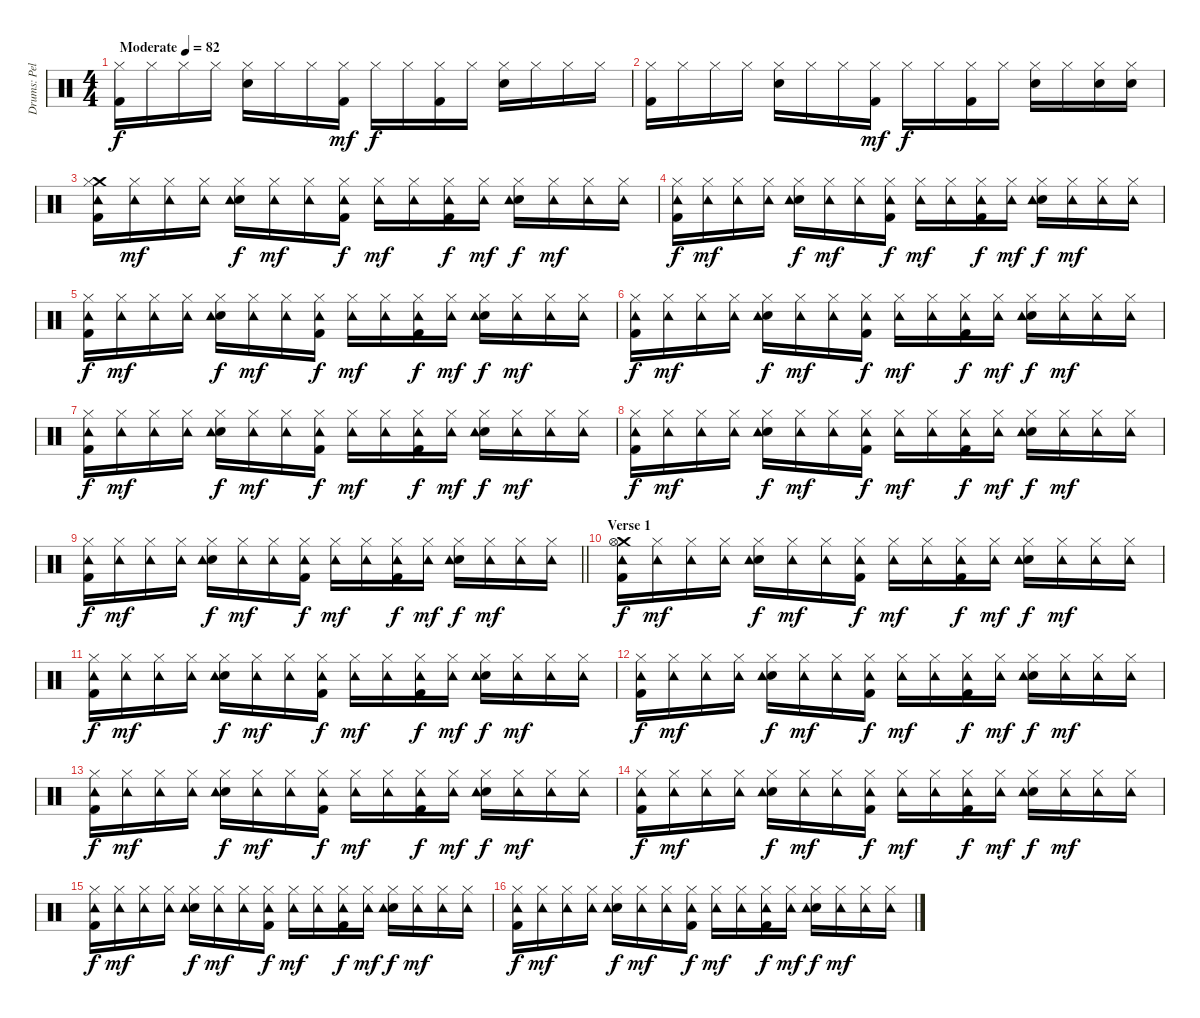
\track ("Drums: Pelle Alsing" "Drums: Pel") {instrument percussion}
\staff {score}
\articulation defaults
\ts (4 4)
\tempo (82 "Moderate")
\clef neutral
\ks c
("Hi-Hat (closed)" "Kick (hit) 2").16{dy f} "Hi-Hat (closed)".16 "Hi-Hat (closed)".16 "Hi-Hat (closed)".16 ("Hi-Hat (closed)" "Snare (hit) 2").16 "Hi-Hat (closed)".16 "Hi-Hat (closed)".16 ("Hi-Hat (closed)" "Kick (hit) 2").16{dy mf} "Hi-Hat (closed)".16{dy f} "Hi-Hat (closed)".16 ("Hi-Hat (closed)" "Kick (hit) 2").16 "Hi-Hat (closed)".16 ("Hi-Hat (closed)" "Snare (hit) 2").16 "Hi-Hat (closed)".16 "Hi-Hat (closed)".16 "Hi-Hat (closed)".16 |
("Hi-Hat (closed)" "Kick (hit) 2").16 "Hi-Hat (closed)".16 "Hi-Hat (closed)".16 "Hi-Hat (closed)".16 ("Hi-Hat (closed)" "Snare (hit) 2").16 "Hi-Hat (closed)".16 "Hi-Hat (closed)".16 ("Hi-Hat (closed)" "Kick (hit) 2").16{dy mf} "Hi-Hat (closed)".16{dy f} "Hi-Hat (closed)".16 ("Hi-Hat (closed)" "Kick (hit) 2").16 "Hi-Hat (closed)".16 ("Hi-Hat (closed)" "Snare (hit) 2").16 "Hi-Hat (closed)".16 ("Hi-Hat (closed)" "Snare (hit) 2").16 ("Hi-Hat (closed)" "Snare (hit) 2").16 |
("Crash medium (hit)" "Hi-Hat (closed)" "Tambourine (hit)" "Kick (hit) 2").16 ("Hi-Hat (closed)" "Tambourine (hit)").16{dy mf} ("Hi-Hat (closed)" "Tambourine (hit)").16 ("Hi-Hat (closed)" "Tambourine (hit)").16 ("Hi-Hat (closed)" "Snare (hit) 2" "Tambourine (hit)").16{dy f} ("Hi-Hat (closed)" "Tambourine (hit)").16{dy mf} ("Hi-Hat (closed)" "Tambourine (hit)").16 ("Hi-Hat (closed)" "Tambourine (hit)" "Kick (hit) 2").16{dy f} ("Hi-Hat (closed)" "Tambourine (hit)").16{dy mf} ("Hi-Hat (closed)" "Tambourine (hit)").16 ("Hi-Hat (closed)" "Tambourine (hit)" "Kick (hit) 2").16{dy f} ("Hi-Hat (closed)" "Tambourine (hit)").16{dy mf} ("Hi-Hat (closed)" "Snare (hit) 2" "Tambourine (hit)").16{dy f} ("Hi-Hat (closed)" "Tambourine (hit)").16{dy mf} ("Hi-Hat (closed)" "Tambourine (hit)").16 ("Hi-Hat (closed)" "Tambourine (hit)").16 |
("Hi-Hat (closed)" "Tambourine (hit)" "Kick (hit) 2").16{dy f} ("Hi-Hat (closed)" "Tambourine (hit)").16{dy mf} ("Hi-Hat (closed)" "Tambourine (hit)").16 ("Hi-Hat (closed)" "Tambourine (hit)").16 ("Hi-Hat (closed)" "Snare (hit) 2" "Tambourine (hit)").16{dy f} ("Hi-Hat (closed)" "Tambourine (hit)").16{dy mf} ("Hi-Hat (closed)" "Tambourine (hit)").16 ("Hi-Hat (closed)" "Tambourine (hit)" "Kick (hit) 2").16{dy f} ("Hi-Hat (closed)" "Tambourine (hit)").16{dy mf} ("Hi-Hat (closed)" "Tambourine (hit)").16 ("Hi-Hat (closed)" "Tambourine (hit)" "Kick (hit) 2").16{dy f} ("Hi-Hat (closed)" "Tambourine (hit)").16{dy mf} ("Hi-Hat (closed)" "Snare (hit) 2" "Tambourine (hit)").16{dy f} ("Hi-Hat (closed)" "Tambourine (hit)").16{dy mf} ("Hi-Hat (closed)" "Tambourine (hit)").16 ("Hi-Hat (closed)" "Tambourine (hit)").16 |
("Hi-Hat (closed)" "Tambourine (hit)" "Kick (hit) 2").16{dy f} ("Hi-Hat (closed)" "Tambourine (hit)").16{dy mf} ("Hi-Hat (closed)" "Tambourine (hit)").16 ("Hi-Hat (closed)" "Tambourine (hit)").16 ("Hi-Hat (closed)" "Snare (hit) 2" "Tambourine (hit)").16{dy f} ("Hi-Hat (closed)" "Tambourine (hit)").16{dy mf} ("Hi-Hat (closed)" "Tambourine (hit)").16 ("Hi-Hat (closed)" "Tambourine (hit)" "Kick (hit) 2").16{dy f} ("Hi-Hat (closed)" "Tambourine (hit)").16{dy mf} ("Hi-Hat (closed)" "Tambourine (hit)").16 ("Hi-Hat (closed)" "Tambourine (hit)" "Kick (hit) 2").16{dy f} ("Hi-Hat (closed)" "Tambourine (hit)").16{dy mf} ("Hi-Hat (closed)" "Snare (hit) 2" "Tambourine (hit)").16{dy f} ("Hi-Hat (closed)" "Tambourine (hit)").16{dy mf} ("Hi-Hat (closed)" "Tambourine (hit)").16 ("Hi-Hat (closed)" "Tambourine (hit)").16 |
("Hi-Hat (closed)" "Tambourine (hit)" "Kick (hit) 2").16{dy f} ("Hi-Hat (closed)" "Tambourine (hit)").16{dy mf} ("Hi-Hat (closed)" "Tambourine (hit)").16 ("Hi-Hat (closed)" "Tambourine (hit)").16 ("Hi-Hat (closed)" "Snare (hit) 2" "Tambourine (hit)").16{dy f} ("Hi-Hat (closed)" "Tambourine (hit)").16{dy mf} ("Hi-Hat (closed)" "Tambourine (hit)").16 ("Hi-Hat (closed)" "Tambourine (hit)" "Kick (hit) 2").16{dy f} ("Hi-Hat (closed)" "Tambourine (hit)").16{dy mf} ("Hi-Hat (closed)" "Tambourine (hit)").16 ("Hi-Hat (closed)" "Tambourine (hit)" "Kick (hit) 2").16{dy f} ("Hi-Hat (closed)" "Tambourine (hit)").16{dy mf} ("Hi-Hat (closed)" "Snare (hit) 2" "Tambourine (hit)").16{dy f} ("Hi-Hat (closed)" "Tambourine (hit)").16{dy mf} ("Hi-Hat (closed)" "Tambourine (hit)").16 ("Hi-Hat (closed)" "Tambourine (hit)").16 |
("Hi-Hat (closed)" "Tambourine (hit)" "Kick (hit) 2").16{dy f} ("Hi-Hat (closed)" "Tambourine (hit)").16{dy mf} ("Hi-Hat (closed)" "Tambourine (hit)").16 ("Hi-Hat (closed)" "Tambourine (hit)").16 ("Hi-Hat (closed)" "Snare (hit) 2" "Tambourine (hit)").16{dy f} ("Hi-Hat (closed)" "Tambourine (hit)").16{dy mf} ("Hi-Hat (closed)" "Tambourine (hit)").16 ("Hi-Hat (closed)" "Tambourine (hit)" "Kick (hit) 2").16{dy f} ("Hi-Hat (closed)" "Tambourine (hit)").16{dy mf} ("Hi-Hat (closed)" "Tambourine (hit)").16 ("Hi-Hat (closed)" "Tambourine (hit)" "Kick (hit) 2").16{dy f} ("Hi-Hat (closed)" "Tambourine (hit)").16{dy mf} ("Hi-Hat (closed)" "Snare (hit) 2" "Tambourine (hit)").16{dy f} ("Hi-Hat (closed)" "Tambourine (hit)").16{dy mf} ("Hi-Hat (closed)" "Tambourine (hit)").16 ("Hi-Hat (closed)" "Tambourine (hit)").16 |
("Hi-Hat (closed)" "Tambourine (hit)" "Kick (hit) 2").16{dy f} ("Hi-Hat (closed)" "Tambourine (hit)").16{dy mf} ("Hi-Hat (closed)" "Tambourine (hit)").16 ("Hi-Hat (closed)" "Tambourine (hit)").16 ("Hi-Hat (closed)" "Snare (hit) 2" "Tambourine (hit)").16{dy f} ("Hi-Hat (closed)" "Tambourine (hit)").16{dy mf} ("Hi-Hat (closed)" "Tambourine (hit)").16 ("Hi-Hat (closed)" "Tambourine (hit)" "Kick (hit) 2").16{dy f} ("Hi-Hat (closed)" "Tambourine (hit)").16{dy mf} ("Hi-Hat (closed)" "Tambourine (hit)").16 ("Hi-Hat (closed)" "Tambourine (hit)" "Kick (hit) 2").16{dy f} ("Hi-Hat (closed)" "Tambourine (hit)").16{dy mf} ("Hi-Hat (closed)" "Snare (hit) 2" "Tambourine (hit)").16{dy f} ("Hi-Hat (closed)" "Tambourine (hit)").16{dy mf} ("Hi-Hat (closed)" "Tambourine (hit)").16 ("Hi-Hat (closed)" "Tambourine (hit)").16 |
\barLineRight lightlight
("Hi-Hat (closed)" "Tambourine (hit)" "Kick (hit) 2").16{dy f} ("Hi-Hat (closed)" "Tambourine (hit)").16{dy mf} ("Hi-Hat (closed)" "Tambourine (hit)").16 ("Hi-Hat (closed)" "Tambourine (hit)").16 ("Hi-Hat (closed)" "Snare (hit) 2" "Tambourine (hit)").16{dy f} ("Hi-Hat (closed)" "Tambourine (hit)").16{dy mf} ("Hi-Hat (closed)" "Tambourine (hit)").16 ("Hi-Hat (closed)" "Tambourine (hit)" "Kick (hit) 2").16{dy f} ("Hi-Hat (closed)" "Tambourine (hit)").16{dy mf} ("Hi-Hat (closed)" "Tambourine (hit)").16 ("Hi-Hat (closed)" "Tambourine (hit)" "Kick (hit) 2").16{dy f} ("Hi-Hat (closed)" "Tambourine (hit)").16{dy mf} ("Hi-Hat (closed)" "Snare (hit) 2" "Tambourine (hit)").16{dy f} ("Hi-Hat (closed)" "Tambourine (hit)").16{dy mf} ("Hi-Hat (closed)" "Tambourine (hit)").16 ("Hi-Hat (closed)" "Tambourine (hit)").16 |
\section ("" "Verse 1")
("Crash medium (hit)" "Hi-Hat (open)" "Tambourine (hit)" "Kick (hit) 2").16{dy f} ("Hi-Hat (closed)" "Tambourine (hit)").16{dy mf} ("Hi-Hat (closed)" "Tambourine (hit)").16 ("Hi-Hat (closed)" "Tambourine (hit)").16 ("Hi-Hat (closed)" "Snare (hit) 2" "Tambourine (hit)").16{dy f} ("Hi-Hat (closed)" "Tambourine (hit)").16{dy mf} ("Hi-Hat (closed)" "Tambourine (hit)").16 ("Hi-Hat (closed)" "Tambourine (hit)" "Kick (hit) 2").16{dy f} ("Hi-Hat (closed)" "Tambourine (hit)").16{dy mf} ("Hi-Hat (closed)" "Tambourine (hit)").16 ("Hi-Hat (closed)" "Tambourine (hit)" "Kick (hit) 2").16{dy f} ("Hi-Hat (closed)" "Tambourine (hit)").16{dy mf} ("Hi-Hat (closed)" "Snare (hit) 2" "Tambourine (hit)").16{dy f} ("Hi-Hat (closed)" "Tambourine (hit)").16{dy mf} ("Hi-Hat (closed)" "Tambourine (hit)").16 ("Hi-Hat (closed)" "Tambourine (hit)").16 |
("Hi-Hat (closed)" "Tambourine (hit)" "Kick (hit) 2").16{dy f} ("Hi-Hat (closed)" "Tambourine (hit)").16{dy mf} ("Hi-Hat (closed)" "Tambourine (hit)").16 ("Hi-Hat (closed)" "Tambourine (hit)").16 ("Hi-Hat (closed)" "Snare (hit) 2" "Tambourine (hit)").16{dy f} ("Hi-Hat (closed)" "Tambourine (hit)").16{dy mf} ("Hi-Hat (closed)" "Tambourine (hit)").16 ("Hi-Hat (closed)" "Tambourine (hit)" "Kick (hit) 2").16{dy f} ("Hi-Hat (closed)" "Tambourine (hit)").16{dy mf} ("Hi-Hat (closed)" "Tambourine (hit)").16 ("Hi-Hat (closed)" "Tambourine (hit)" "Kick (hit) 2").16{dy f} ("Hi-Hat (closed)" "Tambourine (hit)").16{dy mf} ("Hi-Hat (closed)" "Snare (hit) 2" "Tambourine (hit)").16{dy f} ("Hi-Hat (closed)" "Tambourine (hit)").16{dy mf} ("Hi-Hat (closed)" "Tambourine (hit)").16 ("Hi-Hat (closed)" "Tambourine (hit)").16 |
("Hi-Hat (closed)" "Tambourine (hit)" "Kick (hit) 2").16{dy f} ("Hi-Hat (closed)" "Tambourine (hit)").16{dy mf} ("Hi-Hat (closed)" "Tambourine (hit)").16 ("Hi-Hat (closed)" "Tambourine (hit)").16 ("Hi-Hat (closed)" "Snare (hit) 2" "Tambourine (hit)").16{dy f} ("Hi-Hat (closed)" "Tambourine (hit)").16{dy mf} ("Hi-Hat (closed)" "Tambourine (hit)").16 ("Hi-Hat (closed)" "Tambourine (hit)" "Kick (hit) 2").16{dy f} ("Hi-Hat (closed)" "Tambourine (hit)").16{dy mf} ("Hi-Hat (closed)" "Tambourine (hit)").16 ("Hi-Hat (closed)" "Tambourine (hit)" "Kick (hit) 2").16{dy f} ("Hi-Hat (closed)" "Tambourine (hit)").16{dy mf} ("Hi-Hat (closed)" "Snare (hit) 2" "Tambourine (hit)").16{dy f} ("Hi-Hat (closed)" "Tambourine (hit)").16{dy mf} ("Hi-Hat (closed)" "Tambourine (hit)").16 ("Hi-Hat (closed)" "Tambourine (hit)").16 |
("Hi-Hat (closed)" "Tambourine (hit)" "Kick (hit) 2").16{dy f} ("Hi-Hat (closed)" "Tambourine (hit)").16{dy mf} ("Hi-Hat (closed)" "Tambourine (hit)").16 ("Hi-Hat (closed)" "Tambourine (hit)").16 ("Hi-Hat (closed)" "Snare (hit) 2" "Tambourine (hit)").16{dy f} ("Hi-Hat (closed)" "Tambourine (hit)").16{dy mf} ("Hi-Hat (closed)" "Tambourine (hit)").16 ("Hi-Hat (closed)" "Tambourine (hit)" "Kick (hit) 2").16{dy f} ("Hi-Hat (closed)" "Tambourine (hit)").16{dy mf} ("Hi-Hat (closed)" "Tambourine (hit)").16 ("Hi-Hat (closed)" "Tambourine (hit)" "Kick (hit) 2").16{dy f} ("Hi-Hat (closed)" "Tambourine (hit)").16{dy mf} ("Hi-Hat (closed)" "Snare (hit) 2" "Tambourine (hit)").16{dy f} ("Hi-Hat (closed)" "Tambourine (hit)").16{dy mf} ("Hi-Hat (closed)" "Tambourine (hit)").16 ("Hi-Hat (closed)" "Tambourine (hit)").16 |
("Hi-Hat (closed)" "Tambourine (hit)" "Kick (hit) 2").16{dy f} ("Hi-Hat (closed)" "Tambourine (hit)").16{dy mf} ("Hi-Hat (closed)" "Tambourine (hit)").16 ("Hi-Hat (closed)" "Tambourine (hit)").16 ("Hi-Hat (closed)" "Snare (hit) 2" "Tambourine (hit)").16{dy f} ("Hi-Hat (closed)" "Tambourine (hit)").16{dy mf} ("Hi-Hat (closed)" "Tambourine (hit)").16 ("Hi-Hat (closed)" "Tambourine (hit)" "Kick (hit) 2").16{dy f} ("Hi-Hat (closed)" "Tambourine (hit)").16{dy mf} ("Hi-Hat (closed)" "Tambourine (hit)").16 ("Hi-Hat (closed)" "Tambourine (hit)" "Kick (hit) 2").16{dy f} ("Hi-Hat (closed)" "Tambourine (hit)").16{dy mf} ("Hi-Hat (closed)" "Snare (hit) 2" "Tambourine (hit)").16{dy f} ("Hi-Hat (closed)" "Tambourine (hit)").16{dy mf} ("Hi-Hat (closed)" "Tambourine (hit)").16 ("Hi-Hat (closed)" "Tambourine (hit)").16 |
("Hi-Hat (closed)" "Tambourine (hit)" "Kick (hit) 2").16{dy f} ("Hi-Hat (closed)" "Tambourine (hit)").16{dy mf} ("Hi-Hat (closed)" "Tambourine (hit)").16 ("Hi-Hat (closed)" "Tambourine (hit)").16 ("Hi-Hat (closed)" "Snare (hit) 2" "Tambourine (hit)").16{dy f} ("Hi-Hat (closed)" "Tambourine (hit)").16{dy mf} ("Hi-Hat (closed)" "Tambourine (hit)").16 ("Hi-Hat (closed)" "Tambourine (hit)" "Kick (hit) 2").16{dy f} ("Hi-Hat (closed)" "Tambourine (hit)").16{dy mf} ("Hi-Hat (closed)" "Tambourine (hit)").16 ("Hi-Hat (closed)" "Tambourine (hit)" "Kick (hit) 2").16{dy f} ("Hi-Hat (closed)" "Tambourine (hit)").16{dy mf} ("Hi-Hat (closed)" "Snare (hit) 2" "Tambourine (hit)").16{dy f} ("Hi-Hat (closed)" "Tambourine (hit)").16{dy mf} ("Hi-Hat (closed)" "Tambourine (hit)").16 ("Hi-Hat (closed)" "Tambourine (hit)").16 |
("Hi-Hat (closed)" "Tambourine (hit)" "Kick (hit) 2").16{dy f} ("Hi-Hat (closed)" "Tambourine (hit)").16{dy mf} ("Hi-Hat (closed)" "Tambourine (hit)").16 ("Hi-Hat (closed)" "Tambourine (hit)").16 ("Hi-Hat (closed)" "Snare (hit) 2" "Tambourine (hit)").16{dy f} ("Hi-Hat (closed)" "Tambourine (hit)").16{dy mf} ("Hi-Hat (closed)" "Tambourine (hit)").16 ("Hi-Hat (closed)" "Tambourine (hit)" "Kick (hit) 2").16{dy f} ("Hi-Hat (closed)" "Tambourine (hit)").16{dy mf} ("Hi-Hat (closed)" "Tambourine (hit)").16 ("Hi-Hat (closed)" "Tambourine (hit)" "Kick (hit) 2").16{dy f} ("Hi-Hat (closed)" "Tambourine (hit)").16{dy mf} ("Hi-Hat (closed)" "Snare (hit) 2" "Tambourine (hit)").16{dy f} ("Hi-Hat (closed)" "Tambourine (hit)").16{dy mf} ("Hi-Hat (closed)" "Tambourine (hit)").16 ("Hi-Hat (closed)" "Tambourine (hit)").16
